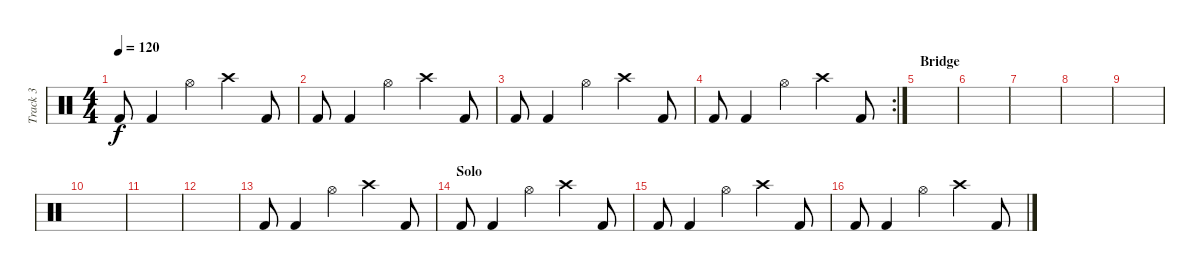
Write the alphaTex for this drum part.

\track ("Track 3" "Track 3") {instrument percussion}
\staff {score}
\articulation defaults
\ts (4 4)
\tempo 120
\clef neutral
\ks c "Kick (hit) 2".8{dy f} "Kick (hit) 2".4 "Hi-Hat (open)".4 "Crash high (hit)".4 "Kick (hit) 2".8
|
"Kick (hit) 2".8 "Kick (hit) 2".4 "Hi-Hat (open)".4 "Crash high (hit)".4 "Kick (hit) 2".8 |
"Kick (hit) 2".8 "Kick (hit) 2".4 "Hi-Hat (open)".4 "Crash high (hit)".4 "Kick (hit) 2".8 |
\rc 2 "Kick (hit) 2".8 "Kick (hit) 2".4 "Hi-Hat (open)".4 "Crash high (hit)".4 "Kick (hit) 2".8
|
\section ("" "Bridge")
|
|
|
|
|
|
|
|
"Kick (hit) 2".8 "Kick (hit) 2".4 "Hi-Hat (open)".4 "Crash high (hit)".4 "Kick (hit) 2".8 |
\section ("" "Solo")
"Kick (hit) 2".8 "Kick (hit) 2".4 "Hi-Hat (open)".4 "Crash high (hit)".4 "Kick (hit) 2".8 |
"Kick (hit) 2".8 "Kick (hit) 2".4 "Hi-Hat (open)".4 "Crash high (hit)".4 "Kick (hit) 2".8 |
"Kick (hit) 2".8 "Kick (hit) 2".4 "Hi-Hat (open)".4 "Crash high (hit)".4 "Kick (hit) 2".8
